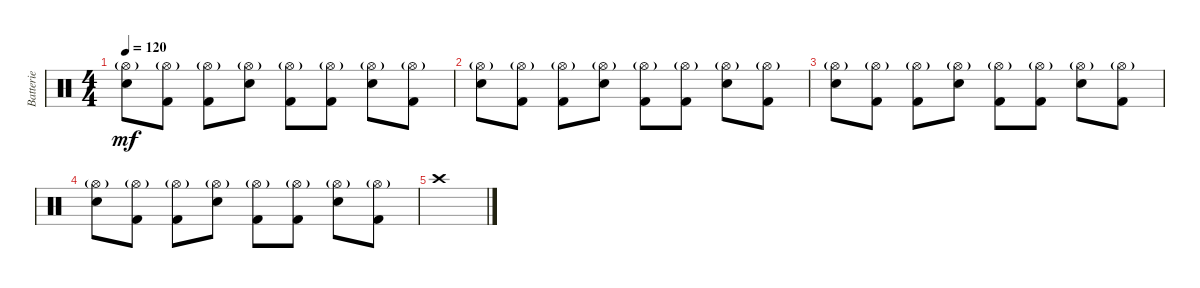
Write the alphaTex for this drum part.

\track ("Batterie" "Batterie") {instrument percussion}
\staff {score}
\articulation defaults
\ts (4 4)
\tempo 120
\clef neutral
\ks c
("Hi-Hat (open)"{g} "Snare (hit) 2").8{dy mf} ("Hi-Hat (open)"{g} "Kick (hit) 2").8 ("Hi-Hat (open)"{g} "Kick (hit) 2").8 ("Hi-Hat (open)"{g} "Snare (hit) 2").8 ("Hi-Hat (open)"{g} "Kick (hit) 2").8 ("Hi-Hat (open)"{g} "Kick (hit) 2").8 ("Hi-Hat (open)"{g} "Snare (hit) 2").8 ("Hi-Hat (open)"{g} "Kick (hit) 2").8 |
("Hi-Hat (open)"{g} "Snare (hit) 2").8 ("Hi-Hat (open)"{g} "Kick (hit) 2").8 ("Hi-Hat (open)"{g} "Kick (hit) 2").8 ("Hi-Hat (open)"{g} "Snare (hit) 2").8 ("Hi-Hat (open)"{g} "Kick (hit) 2").8 ("Hi-Hat (open)"{g} "Kick (hit) 2").8 ("Hi-Hat (open)"{g} "Snare (hit) 2").8 ("Hi-Hat (open)"{g} "Kick (hit) 2").8 |
("Hi-Hat (open)"{g} "Snare (hit) 2").8 ("Hi-Hat (open)"{g} "Kick (hit) 2").8 ("Hi-Hat (open)"{g} "Kick (hit) 2").8 ("Hi-Hat (open)"{g} "Snare (hit) 2").8 ("Hi-Hat (open)"{g} "Kick (hit) 2").8 ("Hi-Hat (open)"{g} "Kick (hit) 2").8 ("Hi-Hat (open)"{g} "Snare (hit) 2").8 ("Hi-Hat (open)"{g} "Kick (hit) 2").8 |
("Hi-Hat (open)"{g} "Snare (hit) 2").8 ("Hi-Hat (open)"{g} "Kick (hit) 2").8 ("Hi-Hat (open)"{g} "Kick (hit) 2").8 ("Hi-Hat (open)"{g} "Snare (hit) 2").8 ("Hi-Hat (open)"{g} "Kick (hit) 2").8 ("Hi-Hat (open)"{g} "Kick (hit) 2").8 ("Hi-Hat (open)"{g} "Snare (hit) 2").8 ("Hi-Hat (open)"{g} "Kick (hit) 2").8 |
"Crash high (hit)".1
